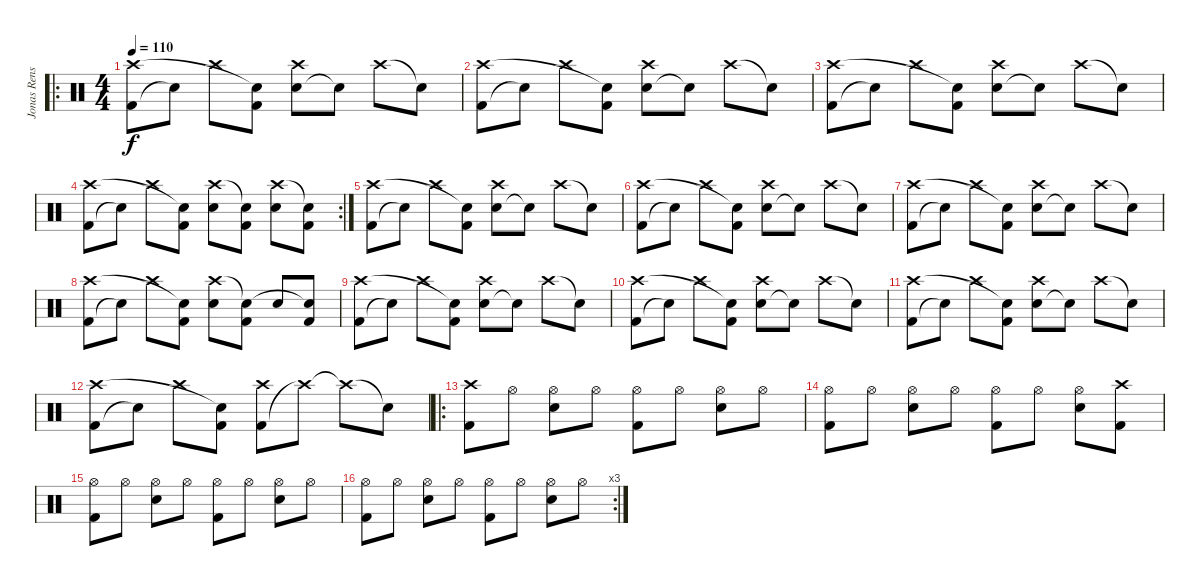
\track ("Jonas Renske" "Jonas Rens") {instrument percussion}
\staff {score}
\articulation defaults
\ro
\ts (4 4)
\tempo 110
\clef neutral
\ks c
("Kick (hit) 2" "Crash high (hit)").8{dy f} "Snare (hit)"{t}.8 "Crash high (hit)".8 ("Kick (hit) 2" "Snare (hit)"{t}).8 ("Electric Snare (hit)" "Crash high (hit)").8 "Snare (hit)"{t}.8 "Crash high (hit)".8 "Snare (hit)"{t}.8 |
("Kick (hit) 2" "Crash high (hit)").8 "Snare (hit)"{t}.8 "Crash high (hit)".8 ("Kick (hit) 2" "Snare (hit)"{t}).8 ("Electric Snare (hit)" "Crash high (hit)").8 "Snare (hit)"{t}.8 "Crash high (hit)".8 "Snare (hit)"{t}.8 |
("Kick (hit) 2" "Crash high (hit)").8 "Snare (hit)"{t}.8 "Crash high (hit)".8 ("Kick (hit) 2" "Snare (hit)"{t}).8 ("Electric Snare (hit)" "Crash high (hit)").8 "Snare (hit)"{t}.8 "Crash high (hit)".8 "Snare (hit)"{t}.8 |
\rc 2
("Kick (hit) 2" "Crash high (hit)").8 "Snare (hit)"{t}.8 "Crash high (hit)".8 ("Kick (hit) 2" "Snare (hit)"{t}).8 ("Electric Snare (hit)" "Crash high (hit)").8 ("Kick (hit) 2" "Snare (hit)"{t}).8 ("Electric Snare (hit)" "Crash high (hit)").8 ("Kick (hit) 2" "Snare (hit)"{t}).8 |
("Kick (hit) 2" "Crash high (hit)").8 "Snare (hit)"{t}.8 "Crash high (hit)".8 ("Kick (hit) 2" "Snare (hit)"{t}).8 ("Electric Snare (hit)" "Crash high (hit)").8 "Snare (hit)"{t}.8 "Crash high (hit)".8 "Snare (hit)"{t}.8 |
("Kick (hit) 2" "Crash high (hit)").8 "Snare (hit)"{t}.8 "Crash high (hit)".8 ("Kick (hit) 2" "Snare (hit)"{t}).8 ("Electric Snare (hit)" "Crash high (hit)").8 "Snare (hit)"{t}.8 "Crash high (hit)".8 "Snare (hit)"{t}.8 |
("Kick (hit) 2" "Crash high (hit)").8 "Snare (hit)"{t}.8 "Crash high (hit)".8 ("Kick (hit) 2" "Snare (hit)"{t}).8 ("Electric Snare (hit)" "Crash high (hit)").8 "Snare (hit)"{t}.8 "Crash high (hit)".8 "Snare (hit)"{t}.8 |
("Kick (hit) 2" "Crash high (hit)").8 "Snare (hit)"{t}.8 "Crash high (hit)".8 ("Kick (hit) 2" "Snare (hit)"{t}).8 ("Electric Snare (hit)" "Crash high (hit)").8 ("Kick (hit) 2" "Snare (hit)"{t}).8 "Electric Snare (hit)".8 ("Kick (hit) 2" "Snare (hit)"{t}).8 |
("Kick (hit) 2" "Crash high (hit)").8 "Snare (hit)"{t}.8 "Crash high (hit)".8 ("Kick (hit) 2" "Snare (hit)"{t}).8 ("Electric Snare (hit)" "Crash high (hit)").8 "Snare (hit)"{t}.8 "Crash high (hit)".8 "Snare (hit)"{t}.8 |
("Kick (hit) 2" "Crash high (hit)").8 "Snare (hit)"{t}.8 "Crash high (hit)".8 ("Kick (hit) 2" "Snare (hit)"{t}).8 ("Electric Snare (hit)" "Crash high (hit)").8 "Snare (hit)"{t}.8 "Crash high (hit)".8 "Snare (hit)"{t}.8 |
("Kick (hit) 2" "Crash high (hit)").8 "Snare (hit)"{t}.8 "Crash high (hit)".8 ("Kick (hit) 2" "Snare (hit)"{t}).8 ("Electric Snare (hit)" "Crash high (hit)").8 "Snare (hit)"{t}.8 "Crash high (hit)".8 "Snare (hit)"{t}.8 |
("Kick (hit) 2" "Crash high (hit)").8 "Snare (hit)"{t}.8 "Crash high (hit)".8 ("Kick (hit) 2" "Snare (hit)"{t}).8 ("Kick (hit) 2" "Crash high (hit)").8 "Crash high (hit)"{t}.8 "Crash high (hit)"{t}.8 "Snare (hit)"{t}.8 |
\ro
("Kick (hit) 2" "Crash high (hit)").8 "Hi-Hat (open)".8 ("Electric Snare (hit)" "Hi-Hat (open)").8 "Hi-Hat (open)".8 ("Kick (hit) 2" "Hi-Hat (open)").8 "Hi-Hat (open)".8 ("Electric Snare (hit)" "Hi-Hat (open)").8 "Hi-Hat (open)".8 |
("Kick (hit) 2" "Hi-Hat (open)").8 "Hi-Hat (open)".8 ("Electric Snare (hit)" "Hi-Hat (open)").8 "Hi-Hat (open)".8 ("Kick (hit) 2" "Hi-Hat (open)").8 "Hi-Hat (open)".8 ("Electric Snare (hit)" "Hi-Hat (open)").8 ("Kick (hit) 2" "Crash high (hit)").8 |
("Kick (hit) 2" "Hi-Hat (open)").8 "Hi-Hat (open)".8 ("Electric Snare (hit)" "Hi-Hat (open)").8 "Hi-Hat (open)".8 ("Kick (hit) 2" "Hi-Hat (open)").8 "Hi-Hat (open)".8 ("Electric Snare (hit)" "Hi-Hat (open)").8 "Hi-Hat (open)".8 |
\rc 3
("Kick (hit) 2" "Hi-Hat (open)").8 "Hi-Hat (open)".8 ("Electric Snare (hit)" "Hi-Hat (open)").8 "Hi-Hat (open)".8 ("Kick (hit) 2" "Hi-Hat (open)").8 "Hi-Hat (open)".8 ("Electric Snare (hit)" "Hi-Hat (open)").8 "Hi-Hat (open)".8
